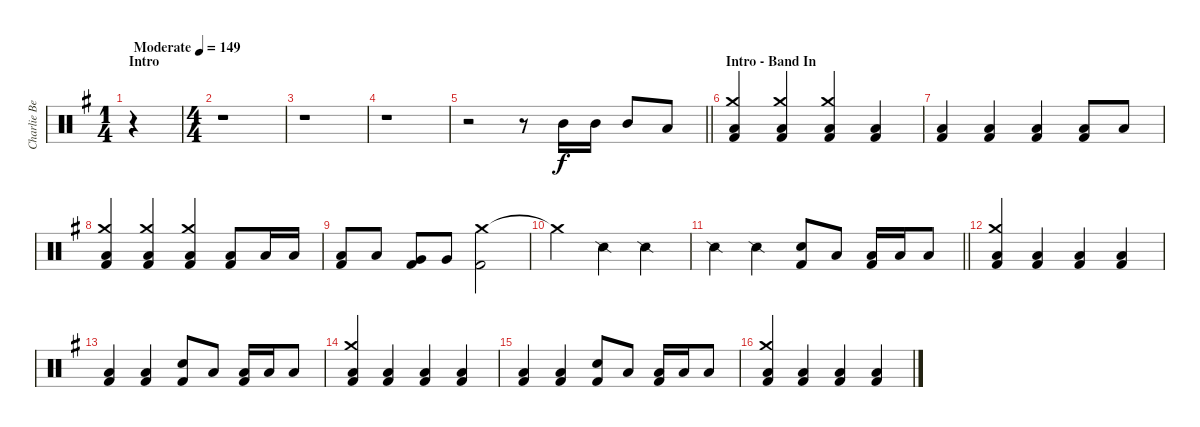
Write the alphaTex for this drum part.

\track ("Charlie Benate" "Charlie Be") {instrument percussion}
\staff {score}
\articulation defaults
\ts (1 4)
\section ("" "Intro")
\tempo (149 "Moderate")
\clef neutral
\ks g
r.4{dy f} |
\ts (4 4)
r.1 |
r.1 |
r.1 |
\barLineRight lightlight
r.2 r.8 "Mid Tom (hit)".16 "Mid Tom (hit)".16 "Mid Tom (hit)".8 "Low Tom (hit)".8 |
\section ("" "Intro - Band In")
("Crash medium (hit)" "Low Tom (hit)" "Kick (hit) 2").4 ("Crash medium (hit)" "Low Tom (hit)" "Kick (hit) 2").4 ("Crash medium (hit)" "Low Tom (hit)" "Kick (hit) 2").4 ("Low Tom (hit)" "Kick (hit) 2").4 |
("Low Tom (hit)" "Kick (hit) 2").4 ("Low Tom (hit)" "Kick (hit) 2").4 ("Low Tom (hit)" "Kick (hit) 2").4 ("Low Tom (hit)" "Kick (hit) 2").8 "Low Tom (hit)".8 |
("Crash medium (hit)" "Low Tom (hit)" "Kick (hit) 2").4 ("Crash medium (hit)" "Low Tom (hit)" "Kick (hit) 2").4 ("Crash medium (hit)" "Low Tom (hit)" "Kick (hit) 2").4 ("Low Tom (hit)" "Kick (hit) 2").8 "Low Tom (hit)".16 "Low Tom (hit)".16 |
("Low Tom (hit)" "Kick (hit) 2").8 "Low Tom (hit)".8 ("Very Low Tom (hit)" "Kick (hit) 2").8 "Very Low Tom (hit)".8 ("Crash medium (hit)" "Kick (hit) 2").2 |
"Crash medium (hit)"{t}.2 "Snare (side stick) 2".4 "Snare (side stick) 2".4 |
\barLineRight lightlight "Snare (side stick) 2".4 "Snare (side stick) 2".4
("Snare (hit) 2" "Kick (hit) 2").8 "Low Tom (hit)".8 ("Low Tom (hit)" "Kick (hit) 2").16 "Low Tom (hit)".16 "Low Tom (hit)".8 |
("Crash medium (hit)" "Low Tom (hit)" "Kick (hit) 2").4 ("Low Tom (hit)" "Kick (hit) 2").4 ("Low Tom (hit)" "Kick (hit) 2").4 ("Low Tom (hit)" "Kick (hit) 2").4 |
("Low Tom (hit)" "Kick (hit) 2").4 ("Low Tom (hit)" "Kick (hit) 2").4 ("Snare (hit) 2" "Kick (hit) 2").8 "Low Tom (hit)".8 ("Low Tom (hit)" "Kick (hit) 2").16 "Low Tom (hit)".16 "Low Tom (hit)".8 |
("Crash medium (hit)" "Low Tom (hit)" "Kick (hit) 2").4 ("Low Tom (hit)" "Kick (hit) 2").4 ("Low Tom (hit)" "Kick (hit) 2").4 ("Low Tom (hit)" "Kick (hit) 2").4 |
("Low Tom (hit)" "Kick (hit) 2").4 ("Low Tom (hit)" "Kick (hit) 2").4 ("Snare (hit) 2" "Kick (hit) 2").8 "Low Tom (hit)".8 ("Low Tom (hit)" "Kick (hit) 2").16 "Low Tom (hit)".16 "Low Tom (hit)".8 |
("Crash medium (hit)" "Low Tom (hit)" "Kick (hit) 2").4 ("Low Tom (hit)" "Kick (hit) 2").4 ("Low Tom (hit)" "Kick (hit) 2").4 ("Low Tom (hit)" "Kick (hit) 2").4
